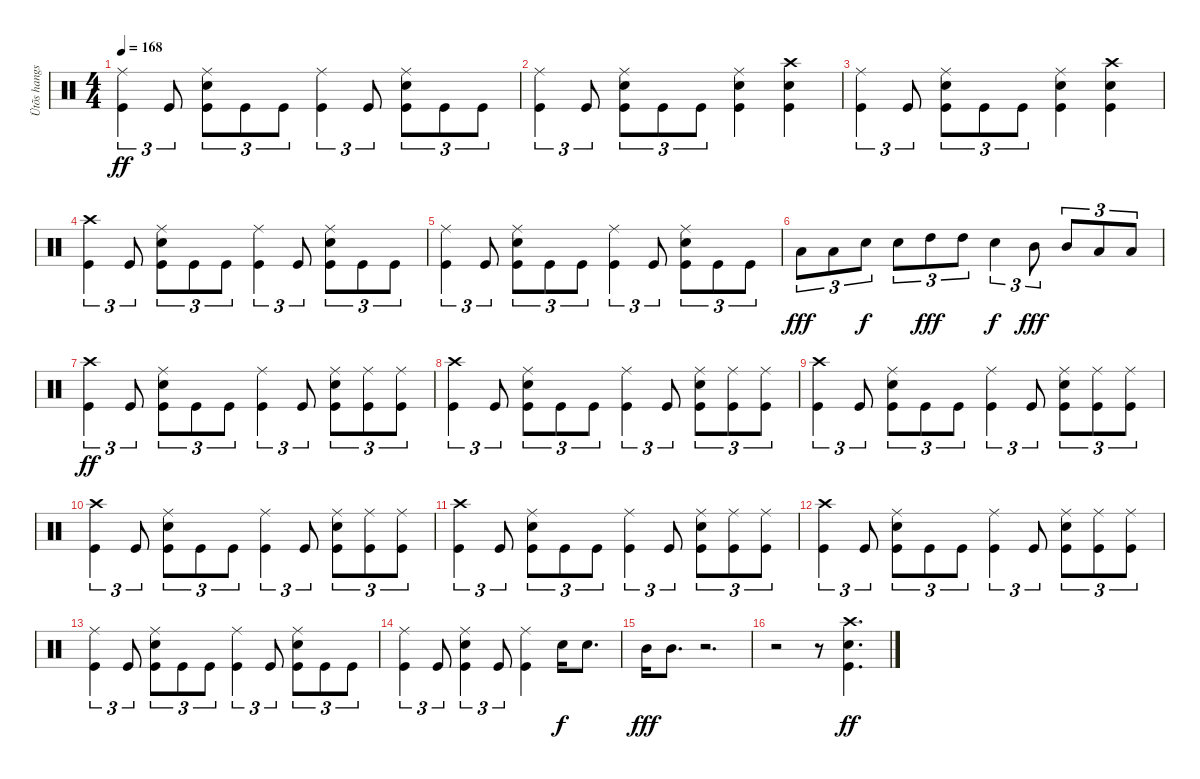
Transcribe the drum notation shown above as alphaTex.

\track ("Ütõs hangszer" "Ütõs hangs") {instrument percussion}
\staff {score}
\articulation defaults
\ts (4 4)
\tempo 168
\clef neutral
\ks c
("Ride (middle)" "Kick (hit)").4{tu (3 2) dy ff} "Kick (hit)".8{tu (3 2)} ("Ride (middle)" "Electric Snare (hit)" "Kick (hit)").8{tu (3 2)} "Kick (hit)".8{tu (3 2)} "Kick (hit)".8{tu (3 2)} ("Ride (middle)" "Kick (hit)").4{tu (3 2)} "Kick (hit)".8{tu (3 2)} ("Ride (middle)" "Electric Snare (hit)" "Kick (hit)").8{tu (3 2)} "Kick (hit)".8{tu (3 2)} "Kick (hit)".8{tu (3 2)} |
("Ride (middle)" "Kick (hit)").4{tu (3 2)} "Kick (hit)".8{tu (3 2)} ("Ride (middle)" "Electric Snare (hit)" "Kick (hit)").8{tu (3 2)} "Kick (hit)".8{tu (3 2)} "Kick (hit)".8{tu (3 2)} ("Ride (middle)" "Electric Snare (hit)" "Kick (hit)").4 ("Crash high (hit)" "Electric Snare (hit)" "Kick (hit)").4 |
("Ride (middle)" "Kick (hit)").4{tu (3 2)} "Kick (hit)".8{tu (3 2)} ("Ride (middle)" "Electric Snare (hit)" "Kick (hit)").8{tu (3 2)} "Kick (hit)".8{tu (3 2)} "Kick (hit)".8{tu (3 2)} ("Ride (middle)" "Electric Snare (hit)" "Kick (hit)").4 ("Crash high (hit)" "Electric Snare (hit)" "Kick (hit)").4 |
("Crash high (hit)" "Kick (hit)").4{tu (3 2)} "Kick (hit)".8{tu (3 2)} ("Ride (middle)" "Electric Snare (hit)" "Kick (hit)").8{tu (3 2)} "Kick (hit)".8{tu (3 2)} "Kick (hit)".8{tu (3 2)} ("Ride (middle)" "Kick (hit)").4{tu (3 2)} "Kick (hit)".8{tu (3 2)} ("Ride (middle)" "Electric Snare (hit)" "Kick (hit)").8{tu (3 2)} "Kick (hit)".8{tu (3 2)} "Kick (hit)".8{tu (3 2)} |
("Ride (middle)" "Kick (hit)").4{tu (3 2)} "Kick (hit)".8{tu (3 2)} ("Ride (middle)" "Electric Snare (hit)" "Kick (hit)").8{tu (3 2)} "Kick (hit)".8{tu (3 2)} "Kick (hit)".8{tu (3 2)} ("Ride (middle)" "Kick (hit)").4{tu (3 2)} "Kick (hit)".8{tu (3 2)} ("Ride (middle)" "Electric Snare (hit)" "Kick (hit)").8{tu (3 2)} "Kick (hit)".8{tu (3 2)} "Kick (hit)".8{tu (3 2)} |
"Low Tom (hit)".8{tu (3 2) dy fff} "Low Tom (hit)".8{tu (3 2)} "Electric Snare (hit)".8{tu (3 2) dy f} "Electric Snare (hit)".8{tu (3 2)} "High Tom (hit)".8{tu (3 2) dy fff} "High Tom (hit)".8{tu (3 2)} "Electric Snare (hit)".4{tu (3 2) dy f} "Mid Tom (hit)".8{tu (3 2) dy fff} "Mid Tom (hit)".8{tu (3 2)} "Low Tom (hit)".8{tu (3 2)} "Low Tom (hit)".8{tu (3 2)} |
("Crash high (hit)" "Kick (hit)").4{tu (3 2) dy ff} "Kick (hit)".8{tu (3 2)} ("Ride (middle)" "Electric Snare (hit)" "Kick (hit)").8{tu (3 2)} "Kick (hit)".8{tu (3 2)} "Kick (hit)".8{tu (3 2)} ("Ride (middle)" "Kick (hit)").4{tu (3 2)} "Kick (hit)".8{tu (3 2)} ("Ride (middle)" "Electric Snare (hit)" "Kick (hit)").8{tu (3 2)} ("Ride (middle)" "Kick (hit)").8{tu (3 2)} ("Ride (middle)" "Kick (hit)").8{tu (3 2)} |
("Crash high (hit)" "Kick (hit)").4{tu (3 2)} "Kick (hit)".8{tu (3 2)} ("Ride (middle)" "Electric Snare (hit)" "Kick (hit)").8{tu (3 2)} "Kick (hit)".8{tu (3 2)} "Kick (hit)".8{tu (3 2)} ("Ride (middle)" "Kick (hit)").4{tu (3 2)} "Kick (hit)".8{tu (3 2)} ("Ride (middle)" "Electric Snare (hit)" "Kick (hit)").8{tu (3 2)} ("Ride (middle)" "Kick (hit)").8{tu (3 2)} ("Ride (middle)" "Kick (hit)").8{tu (3 2)} |
("Crash high (hit)" "Kick (hit)").4{tu (3 2)} "Kick (hit)".8{tu (3 2)} ("Ride (middle)" "Electric Snare (hit)" "Kick (hit)").8{tu (3 2)} "Kick (hit)".8{tu (3 2)} "Kick (hit)".8{tu (3 2)} ("Ride (middle)" "Kick (hit)").4{tu (3 2)} "Kick (hit)".8{tu (3 2)} ("Ride (middle)" "Electric Snare (hit)" "Kick (hit)").8{tu (3 2)} ("Ride (middle)" "Kick (hit)").8{tu (3 2)} ("Ride (middle)" "Kick (hit)").8{tu (3 2)} |
("Crash high (hit)" "Kick (hit)").4{tu (3 2)} "Kick (hit)".8{tu (3 2)} ("Ride (middle)" "Electric Snare (hit)" "Kick (hit)").8{tu (3 2)} "Kick (hit)".8{tu (3 2)} "Kick (hit)".8{tu (3 2)} ("Ride (middle)" "Kick (hit)").4{tu (3 2)} "Kick (hit)".8{tu (3 2)} ("Ride (middle)" "Electric Snare (hit)" "Kick (hit)").8{tu (3 2)} ("Ride (middle)" "Kick (hit)").8{tu (3 2)} ("Ride (middle)" "Kick (hit)").8{tu (3 2)} |
("Crash high (hit)" "Kick (hit)").4{tu (3 2)} "Kick (hit)".8{tu (3 2)} ("Ride (middle)" "Electric Snare (hit)" "Kick (hit)").8{tu (3 2)} "Kick (hit)".8{tu (3 2)} "Kick (hit)".8{tu (3 2)} ("Ride (middle)" "Kick (hit)").4{tu (3 2)} "Kick (hit)".8{tu (3 2)} ("Ride (middle)" "Electric Snare (hit)" "Kick (hit)").8{tu (3 2)} ("Ride (middle)" "Kick (hit)").8{tu (3 2)} ("Ride (middle)" "Kick (hit)").8{tu (3 2)} |
("Crash high (hit)" "Kick (hit)").4{tu (3 2)} "Kick (hit)".8{tu (3 2)} ("Ride (middle)" "Electric Snare (hit)" "Kick (hit)").8{tu (3 2)} "Kick (hit)".8{tu (3 2)} "Kick (hit)".8{tu (3 2)} ("Ride (middle)" "Kick (hit)").4{tu (3 2)} "Kick (hit)".8{tu (3 2)} ("Ride (middle)" "Electric Snare (hit)" "Kick (hit)").8{tu (3 2)} ("Ride (middle)" "Kick (hit)").8{tu (3 2)} ("Ride (middle)" "Kick (hit)").8{tu (3 2)} |
("Ride (middle)" "Kick (hit)").4{tu (3 2)} "Kick (hit)".8{tu (3 2)} ("Ride (middle)" "Electric Snare (hit)" "Kick (hit)").8{tu (3 2)} "Kick (hit)".8{tu (3 2)} "Kick (hit)".8{tu (3 2)} ("Ride (middle)" "Kick (hit)").4{tu (3 2)} "Kick (hit)".8{tu (3 2)} ("Ride (middle)" "Electric Snare (hit)" "Kick (hit)").8{tu (3 2)} "Kick (hit)".8{tu (3 2)} "Kick (hit)".8{tu (3 2)} |
("Ride (middle)" "Kick (hit)").4{tu (3 2)} "Kick (hit)".8{tu (3 2)} ("Ride (middle)" "Electric Snare (hit)" "Kick (hit)").4{tu (3 2)} "Kick (hit)".8{tu (3 2)} ("Ride (middle)" "Kick (hit)").4 "Electric Snare (hit)".16{dy f} "Electric Snare (hit)".8{d} |
"Mid Tom (hit)".16{dy fff} "Mid Tom (hit)".8{d} r.2{d} |
r.2 r.8 ("Crash high (hit)" "Electric Snare (hit)" "Kick (hit)").4{d dy ff}
